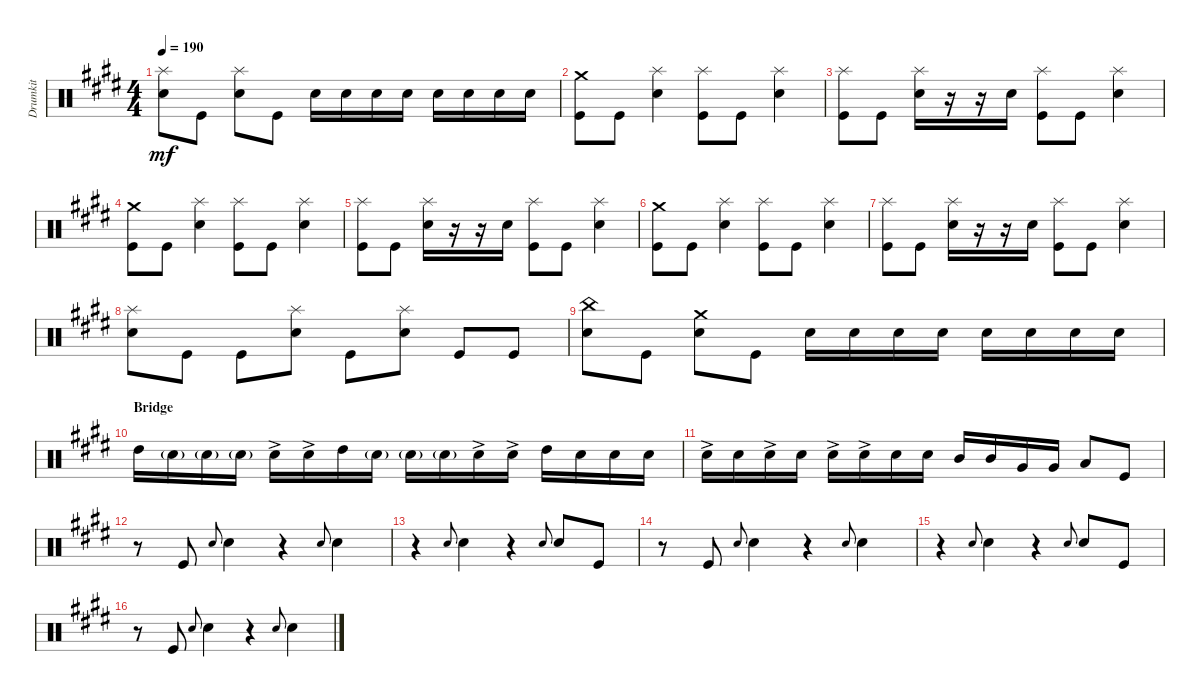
\track ("Drumkit" "Drumkit") {instrument percussion}
\staff {score}
\articulation defaults
\ts (4 4)
\tempo 190
\clef neutral
\ks e
("Snare (hit) 2" "Splash (hit)").8{dy mf} "Kick (hit)".8 ("Snare (hit) 2" "Splash (hit)").8 "Kick (hit)".8 "Snare (hit) 2".16 "Snare (hit) 2".16 "Snare (hit) 2".16 "Snare (hit) 2".16 "Snare (hit) 2".16 "Snare (hit) 2".16 "Snare (hit) 2".16 "Snare (hit) 2".16 |
("Crash medium (hit)" "Kick (hit)").8 "Kick (hit)".8 ("Splash (hit)" "Snare (hit) 2").4 ("Kick (hit)" "Splash (hit)").8 "Kick (hit)".8 ("Snare (hit) 2" "Splash (hit)").4 |
("Kick (hit)" "Splash (hit)").8 "Kick (hit)".8 ("Splash (hit)" "Snare (hit) 2").16 r.16 r.16 "Snare (hit) 2".16 ("Splash (hit)" "Kick (hit)").8 "Kick (hit)".8 ("Splash (hit)" "Snare (hit) 2").4 |
("Crash medium (hit)" "Kick (hit)").8 "Kick (hit)".8 ("Splash (hit)" "Snare (hit) 2").4 ("Kick (hit)" "Splash (hit)").8 "Kick (hit)".8 ("Snare (hit) 2" "Splash (hit)").4 |
("Kick (hit)" "Splash (hit)").8 "Kick (hit)".8 ("Splash (hit)" "Snare (hit) 2").16 r.16 r.16 "Snare (hit) 2".16 ("Splash (hit)" "Kick (hit)").8 "Kick (hit)".8 ("Splash (hit)" "Snare (hit) 2").4 |
("Crash medium (hit)" "Kick (hit)").8 "Kick (hit)".8 ("Splash (hit)" "Snare (hit) 2").4 ("Kick (hit)" "Splash (hit)").8 "Kick (hit)".8 ("Snare (hit) 2" "Splash (hit)").4 |
("Kick (hit)" "Splash (hit)").8 "Kick (hit)".8 ("Splash (hit)" "Snare (hit) 2").16 r.16 r.16 "Snare (hit) 2".16 ("Splash (hit)" "Kick (hit)").8 "Kick (hit)".8 ("Splash (hit)" "Snare (hit) 2").4 |
("Splash (hit)" "Snare (hit) 2").8 "Kick (hit)".8 "Kick (hit)".8 ("Snare (hit) 2" "Splash (hit)").8 "Kick (hit)".8 ("Splash (hit)" "Snare (hit) 2").8 "Kick (hit)".8 "Kick (hit)".8 |
("China (hit)" "Snare (hit) 2").8 "Kick (hit)".8 ("Crash medium (hit)" "Snare (hit) 2").8 "Kick (hit)".8 "Snare (hit) 2".16 "Snare (hit) 2".16 "Snare (hit) 2".16 "Snare (hit) 2".16 "Snare (hit) 2".16 "Snare (hit) 2".16 "Snare (hit) 2".16 "Snare (hit) 2".16 |
\section ("" "Bridge ")
"High Tom (hit)".16 "Snare (hit) 2"{g}.16 "Snare (hit) 2"{g}.16 "Snare (hit) 2"{g}.16 "Snare (hit) 2"{ac}.16 "Snare (hit) 2"{ac}.16 "High Tom (hit)".16 "Snare (hit) 2"{g}.16 "Snare (hit) 2"{g}.16 "Snare (hit) 2"{g}.16 "Snare (hit) 2"{ac}.16 "Snare (hit) 2"{ac}.16 "High Tom (hit)".16 "Snare (hit) 2".16 "Snare (hit) 2".16 "Snare (hit) 2".16 |
"Snare (hit) 2"{ac}.16 "Snare (hit) 2".16 "Snare (hit) 2"{ac}.16 "Snare (hit) 2".16 "Snare (hit) 2"{ac}.16 "Snare (hit) 2"{ac}.16 "Snare (hit) 2".16 "Snare (hit) 2".16 "Mid Tom (hit)".16 "Mid Tom (hit)".16 "Very Low Tom (hit)".16 "Very Low Tom (hit)".16 "Low Floor Tom (hit)".8 "Kick (hit)".8 |
r.8 "Kick (hit)".8 "Snare (hit)".8{gr onbeat} "Snare (hit) 2".4 r.4 "Snare (hit)".8{gr onbeat} "Snare (hit) 2".4 |
r.4 "Snare (hit)".8{gr onbeat} "Snare (hit) 2".4 r.4 "Snare (hit)".8{gr onbeat} "Snare (hit) 2".8 "Kick (hit)".8 |
r.8 "Kick (hit)".8 "Snare (hit)".8{gr onbeat} "Snare (hit) 2".4 r.4 "Snare (hit)".8{gr onbeat} "Snare (hit) 2".4 |
r.4 "Snare (hit)".8{gr onbeat} "Snare (hit) 2".4 r.4 "Snare (hit)".8{gr onbeat} "Snare (hit) 2".8 "Kick (hit)".8 |
r.8 "Kick (hit)".8 "Snare (hit)".8{gr onbeat} "Snare (hit) 2".4 r.4 "Snare (hit)".8{gr onbeat} "Snare (hit) 2".4
